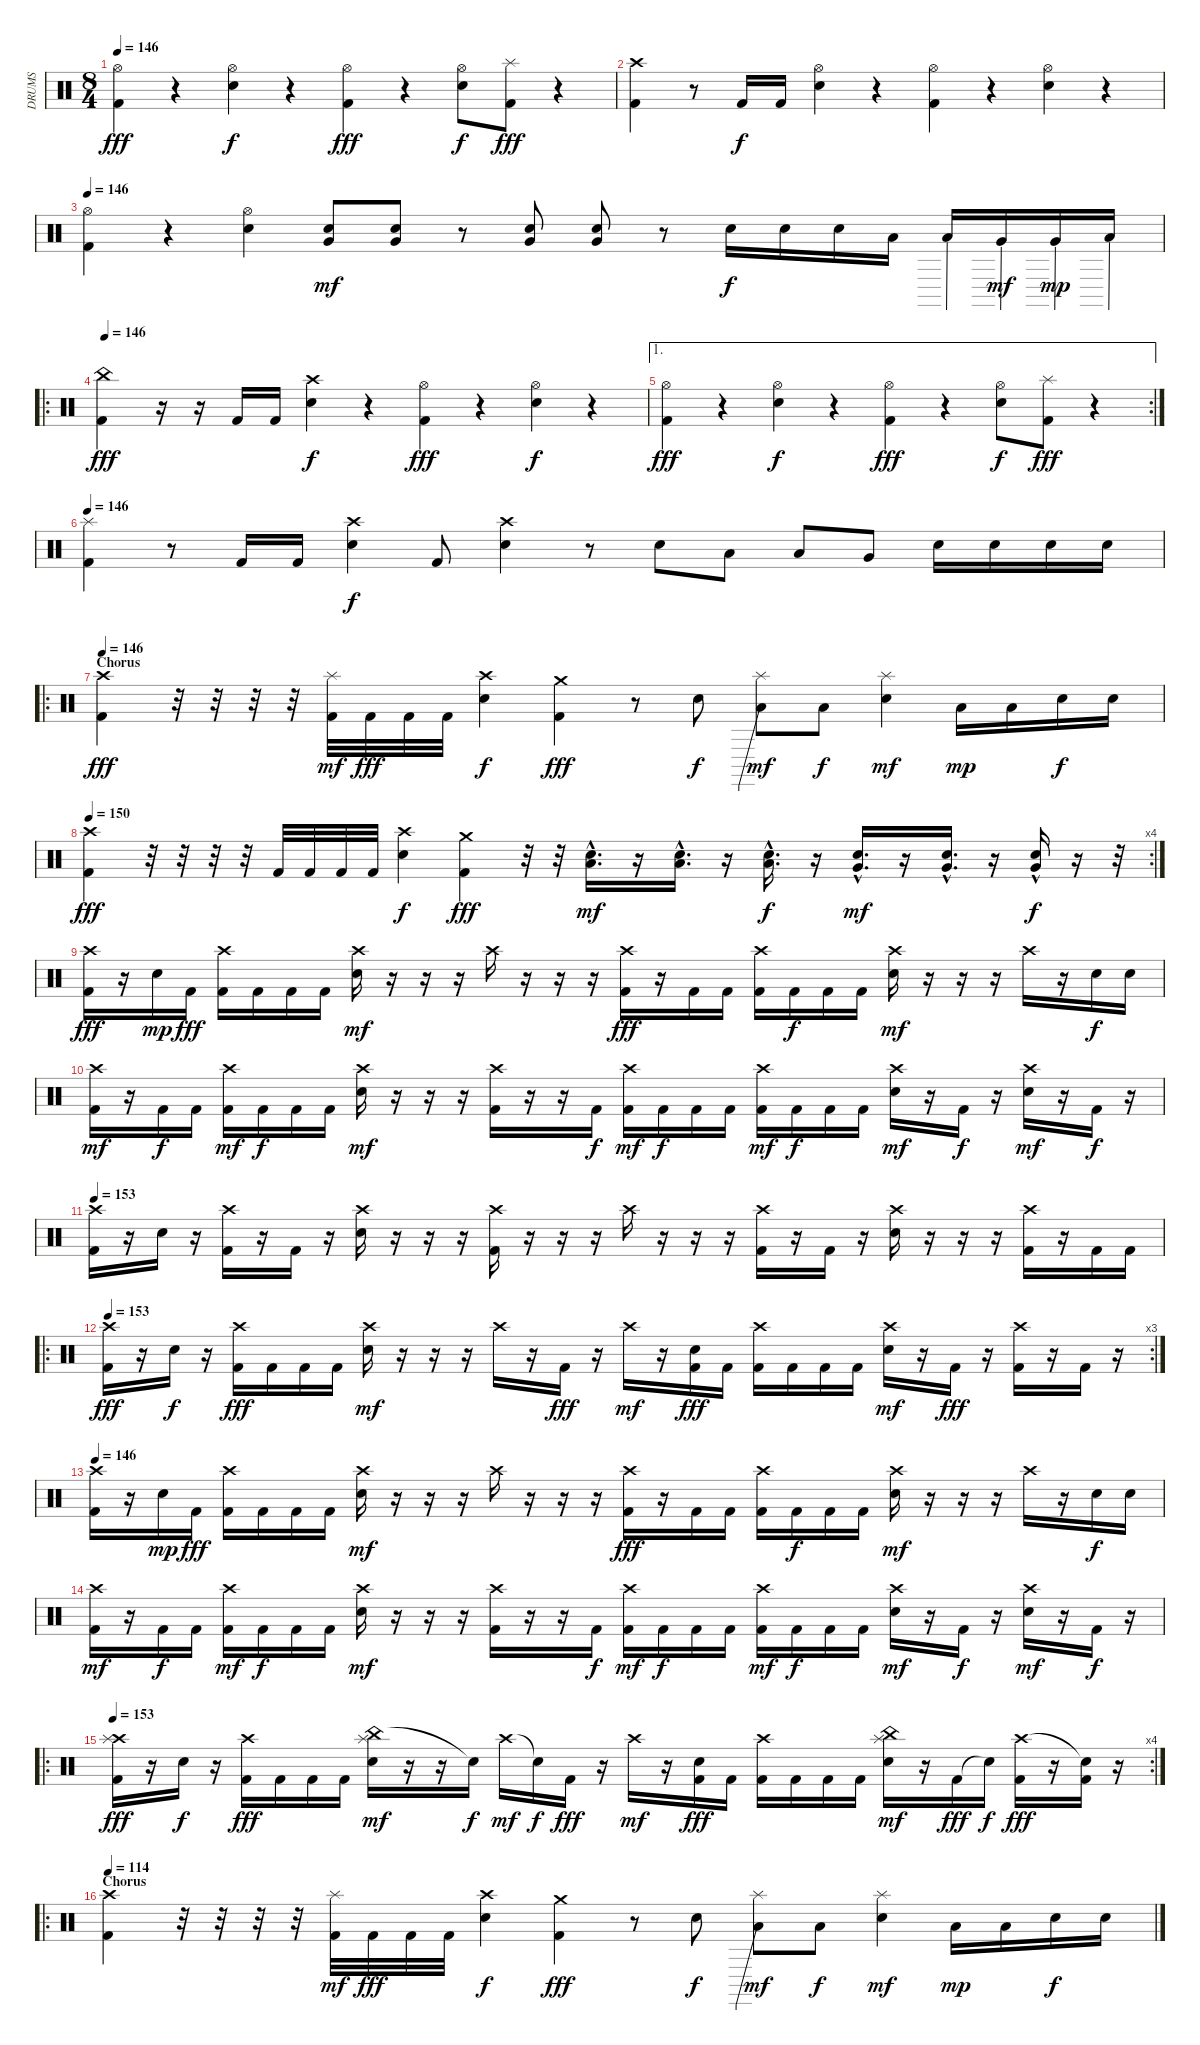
\track ("DRUMS" "DRUMS") {instrument percussion}
\staff {score}
\articulation defaults
\ts (8 4)
\tempo 146
\clef neutral
\ks c
("Hi-Hat (open)" "Kick (hit) 2").4{dy fff} r.4 ("Hi-Hat (open)" "Snare (hit) 2").4{dy f} r.4 ("Hi-Hat (open)" "Kick (hit) 2").4{dy fff} r.4 ("Hi-Hat (open)" "Snare (hit) 2").8{dy f} ("Splash (hit)" "Kick (hit) 2").8{dy fff} r.4 |
("Crash high (hit)" "Kick (hit) 2").4 r.8 "Kick (hit) 2".16{dy f} "Kick (hit) 2".16 ("Hi-Hat (open)" "Snare (hit) 2").4 r.4 ("Hi-Hat (open)" "Kick (hit) 2").4 r.4 ("Hi-Hat (open)" "Snare (hit) 2").4 r.4 |
\tempo 146
("Hi-Hat (open)" "Kick (hit) 2").4 r.4 ("Hi-Hat (open)" "Snare (hit) 2").4 ("Very Low Tom (hit)" "Snare (hit) 2").8{dy mf} ("Very Low Tom (hit)" "Snare (hit) 2").8 r.8 ("Very Low Tom (hit)" "Snare (hit) 2").8 ("Very Low Tom (hit)" "Snare (hit) 2").8 r.8 "Snare (hit) 2".16{dy f} "Snare (hit) 2".16 "Snare (hit) 2".16 "Low Tom (hit)".16 "Low Tom (hit)"{be (prebend 0 1 60 1)}.16 "Very Low Tom (hit)"{be (prebend 0 2 60 2)}.16{dy mf} "Very Low Tom (hit)"{be (prebend 0 3 60 3)}.16{dy mp} "Low Floor Tom (hit)"{be (prebend 0 4 60 4)}.16 |
\ro
\tempo 146
("China (hit)" "Kick (hit) 2").4{dy fff} r.16 r.16 "Kick (hit) 2".16 "Kick (hit) 2".16 ("Crash high (hit)" "Snare (hit) 2").4{dy f} r.4 ("Hi-Hat (open)" "Kick (hit) 2").4{dy fff} r.4 ("Hi-Hat (open)" "Snare (hit) 2").4{dy f} r.4 |
\ae 1
\rc 2
("Hi-Hat (open)" "Kick (hit) 2").4{dy fff} r.4 ("Hi-Hat (open)" "Snare (hit) 2").4{dy f} r.4 ("Hi-Hat (open)" "Kick (hit) 2").4{dy fff} r.4 ("Hi-Hat (open)" "Snare (hit) 2").8{dy f} ("Splash (hit)" "Kick (hit) 2").8{dy fff} r.4 |
\tempo 146
("Splash (hit)" "Kick (hit) 2").4 r.8 "Kick (hit) 2".16 "Kick (hit) 2".16 ("Crash high (hit)" "Snare (hit) 2").4{dy f} "Kick (hit) 2".8 ("Crash high (hit)" "Snare (hit) 2").4 r.8 "Snare (hit) 2".8 "Low Tom (hit)".8 "Low Tom (hit)".8 "Very Low Tom (hit)".8 "Snare (hit) 2".16 "Snare (hit) 2".16 "Snare (hit) 2".16 "Snare (hit) 2".16 |
\ro
\section ("" "Chorus")
\tempo 146
("Crash high (hit)" "Kick (hit) 2").4{dy fff} r.32 r.32 r.32 r.32 ("Splash (hit)" "Kick (hit) 2").32{dy mf} "Kick (hit) 2".32{dy fff} "Kick (hit) 2".32 "Kick (hit) 2".32 ("Crash high (hit)" "Snare (hit) 2").4{dy f} ("Crash medium (hit)" "Kick (hit) 2").4{dy fff} r.8 "Snare (hit) 2".8{dy f} ("Splash (hit)" "Low Tom (hit)"{be (prebend 0 8 60 8)}).8{dy mf} "Low Tom (hit)".8{dy f} ("Splash (hit)" "Snare (hit) 2").4{dy mf} "Low Tom (hit)".16{dy mp} "Low Tom (hit)".16 "Snare (hit) 2".16{dy f} "Snare (hit) 2".16 |
\rc 4
\tempo 150
("Crash high (hit)" "Kick (hit) 2").4{dy fff} r.32 r.32 r.32 r.32 "Kick (hit) 2".32 "Kick (hit) 2".32 "Kick (hit) 2".32 "Kick (hit) 2".32 ("Crash high (hit)" "Snare (hit) 2").4{dy f} ("Crash medium (hit)" "Kick (hit) 2").4{dy fff} r.32 r.32 ("Low Tom (hit)"{hac} "Snare (hit) 2"{hac}).16{d dy mf} r.16 ("Low Tom (hit)"{hac} "Snare (hit) 2"{hac}).16{d} r.16 ("Low Tom (hit)"{hac} "Snare (hit) 2"{hac}).16{d dy f} r.16 ("Very Low Tom (hit)"{hac} "Snare (hit) 2"{hac}).16{d dy mf} r.16 ("Very Low Tom (hit)"{hac} "Snare (hit) 2"{hac}).16{d} r.16 ("Very Low Tom (hit)" "Snare (hit) 2"{hac}).16{dy f} r.16 r.32 |
("Crash high (hit)" "Kick (hit) 2").16{dy fff} r.16 "Snare (hit) 2".16{dy mp} "Kick (hit) 2".16{dy fff} ("Crash high (hit)" "Kick (hit) 2").16 "Kick (hit) 2".16 "Kick (hit) 2".16 "Kick (hit) 2".16 ("Crash high (hit)" "Snare (hit) 2").16{dy mf} r.16 r.16 r.16 "Crash high (hit)".16 r.16 r.16 r.16 ("Crash high (hit)" "Kick (hit) 2").16{dy fff} r.16 "Kick (hit) 2".16 "Kick (hit) 2".16 ("Crash high (hit)" "Kick (hit) 2").16 "Kick (hit) 2".16{dy f} "Kick (hit) 2".16 "Kick (hit) 2".16 ("Crash high (hit)" "Snare (hit) 2").16{dy mf} r.16 r.16 r.16 "Crash high (hit)".16 r.16 "Snare (hit) 2".16{dy f} "Snare (hit) 2".16 |
("Crash high (hit)" "Kick (hit) 2").16{dy mf} r.16 "Kick (hit) 2".16{dy f} "Kick (hit) 2".16 ("Crash high (hit)" "Kick (hit) 2").16{dy mf} "Kick (hit) 2".16{dy f} "Kick (hit) 2".16 "Kick (hit) 2".16 ("Crash high (hit)" "Snare (hit) 2").16{dy mf} r.16 r.16 r.16 ("Crash high (hit)" "Kick (hit) 2").16 r.16 r.16 "Kick (hit) 2".16{dy f} ("Crash high (hit)" "Kick (hit) 2").16{dy mf} "Kick (hit) 2".16{dy f} "Kick (hit) 2".16 "Kick (hit) 2".16 ("Crash high (hit)" "Kick (hit) 2").16{dy mf} "Kick (hit) 2".16{dy f} "Kick (hit) 2".16 "Kick (hit) 2".16 ("Crash high (hit)" "Snare (hit) 2").16{dy mf} r.16 "Kick (hit) 2".16{dy f} r.16 ("Crash high (hit)" "Snare (hit) 2").16{dy mf} r.16 "Kick (hit) 2".16{dy f} r.16 |
\tempo 153
("Crash high (hit)" "Kick (hit) 2").16 r.16 "Snare (hit) 2".16 r.16 ("Crash high (hit)" "Kick (hit) 2").16 r.16 "Kick (hit) 2".16 r.16 ("Crash high (hit)" "Snare (hit) 2").16 r.16 r.16 r.16 ("Crash high (hit)" "Kick (hit) 2").16 r.16 r.16 r.16 "Crash high (hit)".16 r.16 r.16 r.16 ("Crash high (hit)" "Kick (hit) 2").16 r.16 "Kick (hit) 2".16 r.16 ("Crash high (hit)" "Snare (hit) 2").16 r.16 r.16 r.16 ("Crash high (hit)" "Kick (hit) 2").16 r.16 "Kick (hit) 2".16 "Kick (hit) 2".16 |
\ro
\rc 3
\tempo 153
("Crash high (hit)" "Kick (hit) 2").16{dy fff} r.16 "Snare (hit) 2".16{dy f} r.16 ("Crash high (hit)" "Kick (hit) 2").16{dy fff} "Kick (hit) 2".16 "Kick (hit) 2".16 "Kick (hit) 2".16 ("Crash high (hit)" "Snare (hit) 2").16{dy mf} r.16 r.16 r.16 "Crash high (hit)".16 r.16 "Kick (hit) 2".16{dy fff} r.16 "Crash high (hit)".16{dy mf} r.16 ("Snare (hit) 2" "Kick (hit) 2").16{dy fff} "Kick (hit) 2".16 ("Crash high (hit)" "Kick (hit) 2").16 "Kick (hit) 2".16 "Kick (hit) 2".16 "Kick (hit) 2".16 ("Crash high (hit)" "Snare (hit) 2").16{dy mf} r.16 "Kick (hit) 2".16{dy fff} r.16 ("Crash high (hit)" "Kick (hit) 2").16 r.16 "Kick (hit) 2".16 r.16 |
\tempo 146
("Crash high (hit)" "Kick (hit) 2").16 r.16 "Snare (hit) 2".16{dy mp} "Kick (hit) 2".16{dy fff} ("Crash high (hit)" "Kick (hit) 2").16 "Kick (hit) 2".16 "Kick (hit) 2".16 "Kick (hit) 2".16 ("Crash high (hit)" "Snare (hit) 2").16{dy mf} r.16 r.16 r.16 "Crash high (hit)".16 r.16 r.16 r.16 ("Crash high (hit)" "Kick (hit) 2").16{dy fff} r.16 "Kick (hit) 2".16 "Kick (hit) 2".16 ("Crash high (hit)" "Kick (hit) 2").16 "Kick (hit) 2".16{dy f} "Kick (hit) 2".16 "Kick (hit) 2".16 ("Crash high (hit)" "Snare (hit) 2").16{dy mf} r.16 r.16 r.16 "Crash high (hit)".16 r.16 "Snare (hit) 2".16{dy f} "Snare (hit) 2".16 |
("Crash high (hit)" "Kick (hit) 2").16{dy mf} r.16 "Kick (hit) 2".16{dy f} "Kick (hit) 2".16 ("Crash high (hit)" "Kick (hit) 2").16{dy mf} "Kick (hit) 2".16{dy f} "Kick (hit) 2".16 "Kick (hit) 2".16 ("Crash high (hit)" "Snare (hit) 2").16{dy mf} r.16 r.16 r.16 ("Crash high (hit)" "Kick (hit) 2").16 r.16 r.16 "Kick (hit) 2".16{dy f} ("Crash high (hit)" "Kick (hit) 2").16{dy mf} "Kick (hit) 2".16{dy f} "Kick (hit) 2".16 "Kick (hit) 2".16 ("Crash high (hit)" "Kick (hit) 2").16{dy mf} "Kick (hit) 2".16{dy f} "Kick (hit) 2".16 "Kick (hit) 2".16 ("Crash high (hit)" "Snare (hit) 2").16{dy mf} r.16 "Kick (hit) 2".16{dy f} r.16 ("Crash high (hit)" "Snare (hit) 2").16{dy mf} r.16 "Kick (hit) 2".16{dy f} r.16 |
\ro
\rc 4
\tempo 153
("Crash high (hit)" "Splash (hit)" "Kick (hit) 2").16{dy fff} r.16 "Snare (hit) 2".16{dy f} r.16 ("Crash high (hit)" "Kick (hit) 2").16{dy fff} "Kick (hit) 2".16 "Kick (hit) 2".16 "Kick (hit) 2".16 ("China (hit)" "Splash (hit)" "Snare (hit) 2").16{dy mf} r.16 r.16 "Snare (hit)"{t}.16{dy f} "Crash high (hit)".16{dy mf} "Snare (hit)"{t}.16{dy f} "Kick (hit) 2".16{dy fff} r.16 "Crash high (hit)".16{dy mf} r.16 ("Snare (hit) 2" "Kick (hit) 2").16{dy fff} "Kick (hit) 2".16 ("Crash high (hit)" "Kick (hit) 2").16 "Kick (hit) 2".16 "Kick (hit) 2".16 "Kick (hit) 2".16 ("China (hit)" "Splash (hit)" "Snare (hit) 2").16{dy mf} r.16 "Kick (hit) 2".16{dy fff} "Snare (hit)"{t}.16{dy f} ("Crash high (hit)" "Kick (hit) 2").16{dy fff} r.16 ("Snare (hit)"{t} "Kick (hit) 2").16 r.16 |
\ro
\section ("" "Chorus")
\tempo 114
("Crash high (hit)" "Kick (hit) 2").4 r.32 r.32 r.32 r.32 ("Splash (hit)" "Kick (hit) 2").32{dy mf} "Kick (hit) 2".32{dy fff} "Kick (hit) 2".32 "Kick (hit) 2".32 ("Crash high (hit)" "Snare (hit) 2").4{dy f} ("Crash medium (hit)" "Kick (hit) 2").4{dy fff} r.8 "Snare (hit) 2".8{dy f} ("Splash (hit)" "Low Tom (hit)"{be (prebend 0 8 60 8)}).8{dy mf} "Low Tom (hit)".8{dy f} ("Splash (hit)" "Snare (hit) 2").4{dy mf} "Low Tom (hit)".16{dy mp} "Low Tom (hit)".16 "Snare (hit) 2".16{dy f} "Snare (hit) 2".16
